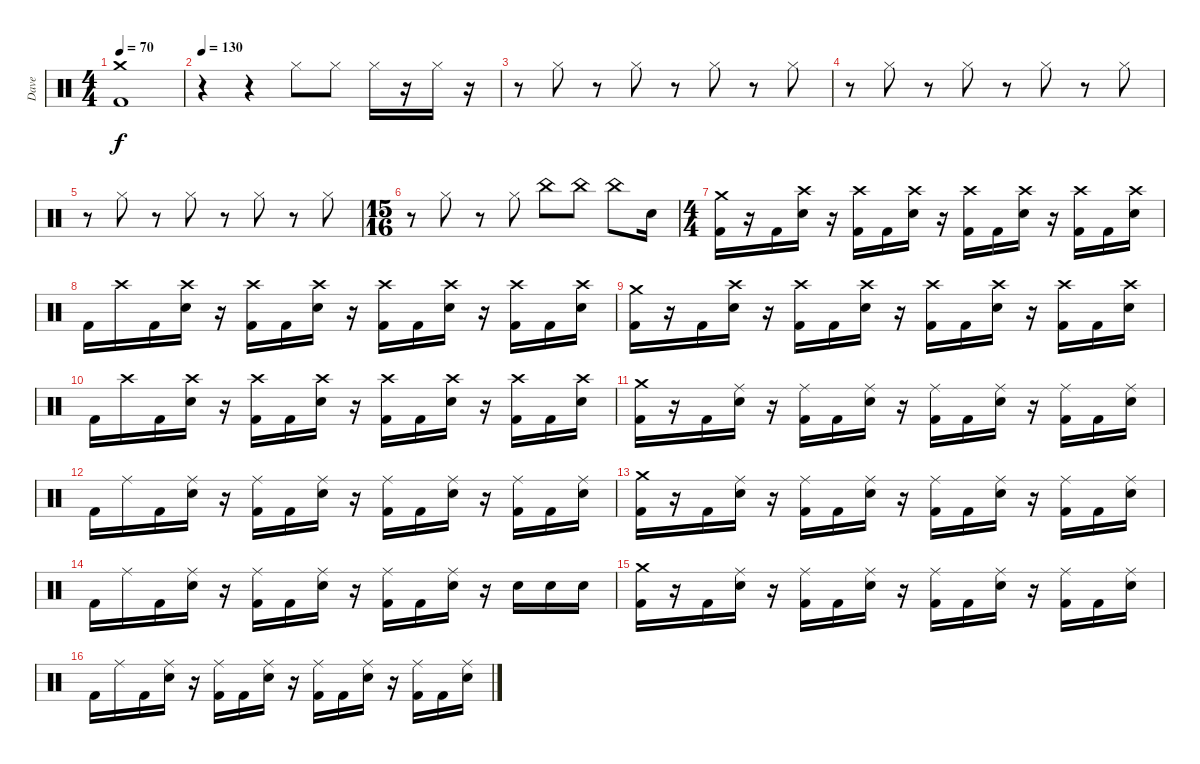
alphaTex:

\track ("Dave" "Dave") {instrument percussion}
\staff {score}
\articulation defaults
\ts (4 4)
\tempo 70
\clef neutral
\ks c
("Crash medium (hit)" "Kick (hit) 2").1{dy f} |
\tempo 130
r.4 r.4 "Hi-Hat (closed)".8 "Hi-Hat (closed)".8 "Hi-Hat (closed)".16 r.16 "Hi-Hat (closed)".16 r.16 |
r.8 "Hi-Hat (closed)".8 r.8 "Hi-Hat (closed)".8 r.8 "Hi-Hat (closed)".8 r.8 "Hi-Hat (closed)".8 |
r.8 "Hi-Hat (closed)".8 r.8 "Hi-Hat (closed)".8 r.8 "Hi-Hat (closed)".8 r.8 "Hi-Hat (closed)".8 |
r.8 "Hi-Hat (closed)".8 r.8 "Hi-Hat (closed)".8 r.8 "Hi-Hat (closed)".8 r.8 "Hi-Hat (closed)".8 |
\ts (15 16)
r.8 "Hi-Hat (closed)".8 r.8 "Hi-Hat (closed)".8 "China (hit)".8 "China (hit)".8 "China (hit)".8 "Electric Snare (hit)".16 |
\ts (4 4)
("Crash medium (hit)" "Kick (hit) 2").16 r.16 "Kick (hit) 2".16 ("Crash high (hit)" "Electric Snare (hit)").16 r.16 ("Crash high (hit)" "Kick (hit) 2").16 "Kick (hit) 2".16 ("Crash high (hit)" "Electric Snare (hit)").16 r.16 ("Crash high (hit)" "Kick (hit) 2").16 "Kick (hit) 2".16 ("Crash high (hit)" "Electric Snare (hit)").16 r.16 ("Crash high (hit)" "Kick (hit) 2").16 "Kick (hit) 2".16 ("Crash high (hit)" "Electric Snare (hit)").16 |
"Kick (hit) 2".16 "Crash high (hit)".16 "Kick (hit) 2".16 ("Crash high (hit)" "Electric Snare (hit)").16 r.16 ("Crash high (hit)" "Kick (hit) 2").16 "Kick (hit) 2".16 ("Crash high (hit)" "Electric Snare (hit)").16 r.16 ("Crash high (hit)" "Kick (hit) 2").16 "Kick (hit) 2".16 ("Crash high (hit)" "Electric Snare (hit)").16 r.16 ("Crash high (hit)" "Kick (hit) 2").16 "Kick (hit) 2".16 ("Crash high (hit)" "Electric Snare (hit)").16 |
("Crash medium (hit)" "Kick (hit) 2").16 r.16 "Kick (hit) 2".16 ("Crash high (hit)" "Electric Snare (hit)").16 r.16 ("Crash high (hit)" "Kick (hit) 2").16 "Kick (hit) 2".16 ("Crash high (hit)" "Electric Snare (hit)").16 r.16 ("Crash high (hit)" "Kick (hit) 2").16 "Kick (hit) 2".16 ("Crash high (hit)" "Electric Snare (hit)").16 r.16 ("Crash high (hit)" "Kick (hit) 2").16 "Kick (hit) 2".16 ("Crash high (hit)" "Electric Snare (hit)").16 |
"Kick (hit) 2".16 "Crash high (hit)".16 "Kick (hit) 2".16 ("Crash high (hit)" "Electric Snare (hit)").16 r.16 ("Crash high (hit)" "Kick (hit) 2").16 "Kick (hit) 2".16 ("Crash high (hit)" "Electric Snare (hit)").16 r.16 ("Crash high (hit)" "Kick (hit) 2").16 "Kick (hit) 2".16 ("Crash high (hit)" "Electric Snare (hit)").16 r.16 ("Crash high (hit)" "Kick (hit) 2").16 "Kick (hit) 2".16 ("Crash high (hit)" "Electric Snare (hit)").16 |
("Crash medium (hit)" "Kick (hit) 2").16 r.16 "Kick (hit) 2".16 ("Ride (middle)" "Electric Snare (hit)").16 r.16 ("Ride (middle)" "Kick (hit) 2").16 "Kick (hit) 2".16 ("Ride (middle)" "Electric Snare (hit)").16 r.16 ("Ride (middle)" "Kick (hit) 2").16 "Kick (hit) 2".16 ("Ride (middle)" "Electric Snare (hit)").16 r.16 ("Ride (middle)" "Kick (hit) 2").16 "Kick (hit) 2".16 ("Ride (middle)" "Electric Snare (hit)").16 |
"Kick (hit) 2".16 "Ride (middle)".16 "Kick (hit) 2".16 ("Ride (middle)" "Electric Snare (hit)").16 r.16 ("Ride (middle)" "Kick (hit) 2").16 "Kick (hit) 2".16 ("Ride (middle)" "Electric Snare (hit)").16 r.16 ("Ride (middle)" "Kick (hit) 2").16 "Kick (hit) 2".16 ("Ride (middle)" "Electric Snare (hit)").16 r.16 ("Ride (middle)" "Kick (hit) 2").16 "Kick (hit) 2".16 ("Ride (middle)" "Electric Snare (hit)").16 |
("Crash medium (hit)" "Kick (hit) 2").16 r.16 "Kick (hit) 2".16 ("Ride (middle)" "Electric Snare (hit)").16 r.16 ("Ride (middle)" "Kick (hit) 2").16 "Kick (hit) 2".16 ("Ride (middle)" "Electric Snare (hit)").16 r.16 ("Ride (middle)" "Kick (hit) 2").16 "Kick (hit) 2".16 ("Ride (middle)" "Electric Snare (hit)").16 r.16 ("Ride (middle)" "Kick (hit) 2").16 "Kick (hit) 2".16 ("Ride (middle)" "Electric Snare (hit)").16 |
"Kick (hit) 2".16 "Ride (middle)".16 "Kick (hit) 2".16 ("Ride (middle)" "Electric Snare (hit)").16 r.16 ("Ride (middle)" "Kick (hit) 2").16 "Kick (hit) 2".16 ("Ride (middle)" "Electric Snare (hit)").16 r.16 ("Ride (middle)" "Kick (hit) 2").16 "Kick (hit) 2".16 ("Ride (middle)" "Electric Snare (hit)").16 r.16 "Electric Snare (hit)".16 "Electric Snare (hit)".16 "Electric Snare (hit)".16 |
("Crash medium (hit)" "Kick (hit) 2").16 r.16 "Kick (hit) 2".16 ("Ride (middle)" "Electric Snare (hit)").16 r.16 ("Ride (middle)" "Kick (hit) 2").16 "Kick (hit) 2".16 ("Ride (middle)" "Electric Snare (hit)").16 r.16 ("Ride (middle)" "Kick (hit) 2").16 "Kick (hit) 2".16 ("Ride (middle)" "Electric Snare (hit)").16 r.16 ("Ride (middle)" "Kick (hit) 2").16 "Kick (hit) 2".16 ("Ride (middle)" "Electric Snare (hit)").16 |
"Kick (hit) 2".16 "Ride (middle)".16 "Kick (hit) 2".16 ("Ride (middle)" "Electric Snare (hit)").16 r.16 ("Ride (middle)" "Kick (hit) 2").16 "Kick (hit) 2".16 ("Ride (middle)" "Electric Snare (hit)").16 r.16 ("Ride (middle)" "Kick (hit) 2").16 "Kick (hit) 2".16 ("Ride (middle)" "Electric Snare (hit)").16 r.16 ("Ride (middle)" "Kick (hit) 2").16 "Kick (hit) 2".16 ("Ride (middle)" "Electric Snare (hit)").16
